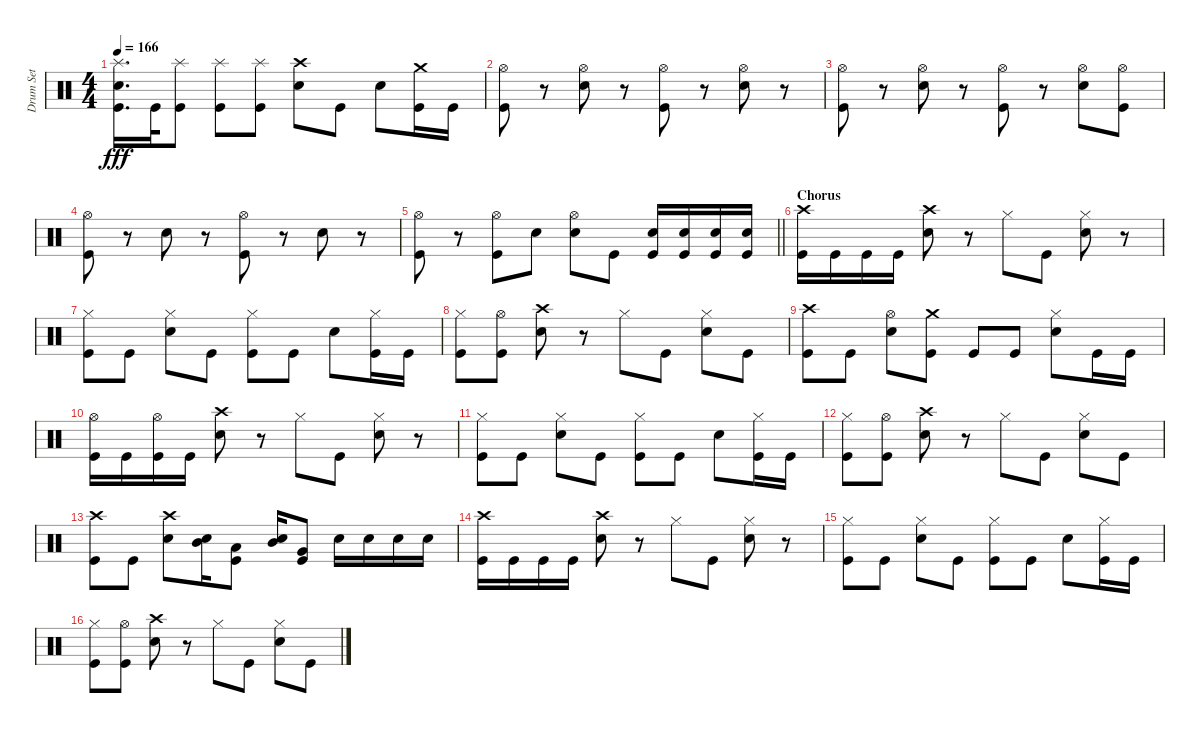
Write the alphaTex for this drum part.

\track ("Drum Set" "Drum Set") {instrument percussion}
\staff {score}
\articulation defaults
\ts (4 4)
\tempo 166
\clef neutral
\ks c
("Electric Snare (hit)" "Kick (hit)" "Splash (hit)").16{d dy fff} "Kick (hit)".32 ("Kick (hit)" "Splash (hit)").8 ("Kick (hit)" "Splash (hit)").8 ("Kick (hit)" "Splash (hit)").8 ("Electric Snare (hit)" "Crash high (hit)").8 "Kick (hit)".8 "Electric Snare (hit)".8 ("Kick (hit)" "Crash medium (hit)").16 "Kick (hit)".16 |
("Kick (hit)" "Hi-Hat (open)").8 r.8 ("Electric Snare (hit)" "Hi-Hat (open)").8 r.8 ("Kick (hit)" "Hi-Hat (open)").8 r.8 ("Electric Snare (hit)" "Hi-Hat (open)").8 r.8 |
("Kick (hit)" "Hi-Hat (open)").8 r.8 ("Electric Snare (hit)" "Hi-Hat (open)").8 r.8 ("Kick (hit)" "Hi-Hat (open)").8 r.8 ("Electric Snare (hit)" "Hi-Hat (open)").8 ("Kick (hit)" "Hi-Hat (open)").8 |
("Kick (hit)" "Hi-Hat (open)").8 r.8 "Electric Snare (hit)".8 r.8 ("Kick (hit)" "Hi-Hat (open)").8 r.8 "Electric Snare (hit)".8 r.8 |
\barLineRight lightlight
("Kick (hit)" "Hi-Hat (open)").8 r.8 ("Kick (hit)" "Hi-Hat (open)").8 "Electric Snare (hit)".8 ("Electric Snare (hit)" "Hi-Hat (open)").8 "Kick (hit)".8 ("Electric Snare (hit)" "Kick (hit)").16 ("Electric Snare (hit)" "Kick (hit)").16 ("Electric Snare (hit)" "Kick (hit)").16 ("Electric Snare (hit)" "Kick (hit)").16 |
\section ("" "Chorus")
("Kick (hit)" "Crash high (hit)").16 "Kick (hit)".16 "Kick (hit)".16 "Kick (hit)".16 ("Electric Snare (hit)" "Crash high (hit)").8 r.8 "Hi-Hat (closed)".8 "Kick (hit)".8 ("Electric Snare (hit)" "Hi-Hat (closed)").8 r.8 |
("Kick (hit)" "Hi-Hat (closed)").8 "Kick (hit)".8 ("Electric Snare (hit)" "Hi-Hat (closed)").8 "Kick (hit)".8 ("Kick (hit)" "Hi-Hat (closed)").8 "Kick (hit)".8 "Electric Snare (hit)".8 ("Kick (hit)" "Hi-Hat (closed)").16 "Kick (hit)".16 |
("Kick (hit)" "Hi-Hat (closed)").8 ("Kick (hit)" "Hi-Hat (open)").8 ("Electric Snare (hit)" "Crash high (hit)").8 r.8 "Hi-Hat (closed)".8 "Kick (hit)".8 ("Electric Snare (hit)" "Hi-Hat (closed)").8 "Kick (hit)".8 |
("Kick (hit)" "Crash high (hit)").8 "Kick (hit)".8 ("Electric Snare (hit)" "Hi-Hat (open)").8 ("Kick (hit)" "Crash medium (hit)").8 "Kick (hit)".8 "Kick (hit)".8 ("Electric Snare (hit)" "Hi-Hat (closed)").8 "Kick (hit)".16 "Kick (hit)".16 |
("Kick (hit)" "Hi-Hat (open)").16 "Kick (hit)".16 ("Kick (hit)" "Hi-Hat (open)").16 "Kick (hit)".16 ("Electric Snare (hit)" "Crash high (hit)").8 r.8 "Hi-Hat (closed)".8 "Kick (hit)".8 ("Electric Snare (hit)" "Hi-Hat (closed)").8 r.8 |
("Kick (hit)" "Hi-Hat (closed)").8 "Kick (hit)".8 ("Electric Snare (hit)" "Hi-Hat (closed)").8 "Kick (hit)".8 ("Kick (hit)" "Hi-Hat (closed)").8 "Kick (hit)".8 "Electric Snare (hit)".8 ("Kick (hit)" "Hi-Hat (closed)").16 "Kick (hit)".16 |
("Kick (hit)" "Hi-Hat (closed)").8 ("Kick (hit)" "Hi-Hat (open)").8 ("Electric Snare (hit)" "Crash high (hit)").8 r.8 "Hi-Hat (closed)".8 "Kick (hit)".8 ("Electric Snare (hit)" "Hi-Hat (closed)").8 "Kick (hit)".8 |
("Kick (hit)" "Crash high (hit)").8 "Kick (hit)".8 ("Electric Snare (hit)" "Crash high (hit)").8 ("Electric Snare (hit)" "Mid Tom (hit)").16 ("Kick (hit)" "Low Tom (hit)").8 ("Electric Snare (hit)" "Mid Tom (hit)").16 ("Kick (hit)" "Very Low Tom (hit)").8 "Electric Snare (hit)".16 "Electric Snare (hit)".16 "Electric Snare (hit)".16 "Electric Snare (hit)".16 |
("Kick (hit)" "Crash high (hit)").16 "Kick (hit)".16 "Kick (hit)".16 "Kick (hit)".16 ("Electric Snare (hit)" "Crash high (hit)").8 r.8 "Hi-Hat (closed)".8 "Kick (hit)".8 ("Electric Snare (hit)" "Hi-Hat (closed)").8 r.8 |
("Kick (hit)" "Hi-Hat (closed)").8 "Kick (hit)".8 ("Electric Snare (hit)" "Hi-Hat (closed)").8 "Kick (hit)".8 ("Kick (hit)" "Hi-Hat (closed)").8 "Kick (hit)".8 "Electric Snare (hit)".8 ("Kick (hit)" "Hi-Hat (closed)").16 "Kick (hit)".16 |
("Kick (hit)" "Hi-Hat (closed)").8 ("Kick (hit)" "Hi-Hat (open)").8 ("Electric Snare (hit)" "Crash high (hit)").8 r.8 "Hi-Hat (closed)".8 "Kick (hit)".8 ("Electric Snare (hit)" "Hi-Hat (closed)").8 "Kick (hit)".8
